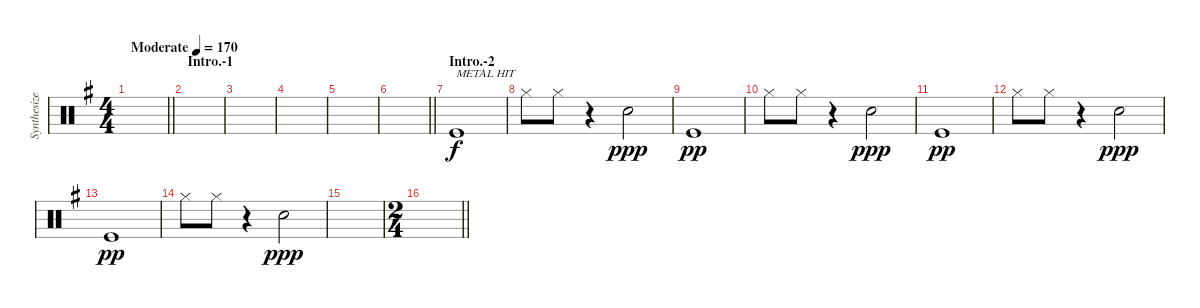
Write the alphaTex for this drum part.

\track ("Synthesizer B" "Synthesize") {instrument percussion}
\staff {score}
\articulation defaults
\ts (4 4)
\tempo (170 "Moderate")
\clef neutral
\barLineRight lightlight
\ks g
|
\section ("" "Intro.-1")
|
|
|
|
\barLineRight lightlight
|
\section ("" "Intro.-2")
"Kick (hit)".1{txt "METAL HIT"} |
"Hi-Hat (closed)".8 "Hi-Hat (closed)".8 r.4 "Snare (hit) 2".2{dy ppp} |
"Kick (hit)".1{dy pp} |
"Hi-Hat (closed)".8 "Hi-Hat (closed)".8 r.4 "Snare (hit) 2".2{dy ppp} |
"Kick (hit)".1{dy pp} |
"Hi-Hat (closed)".8 "Hi-Hat (closed)".8 r.4 "Snare (hit) 2".2{dy ppp} |
"Kick (hit)".1{dy pp} |
"Hi-Hat (closed)".8 "Hi-Hat (closed)".8 r.4 "Snare (hit) 2".2{dy ppp} |
|
\ts (2 4)
\barLineRight lightlight
